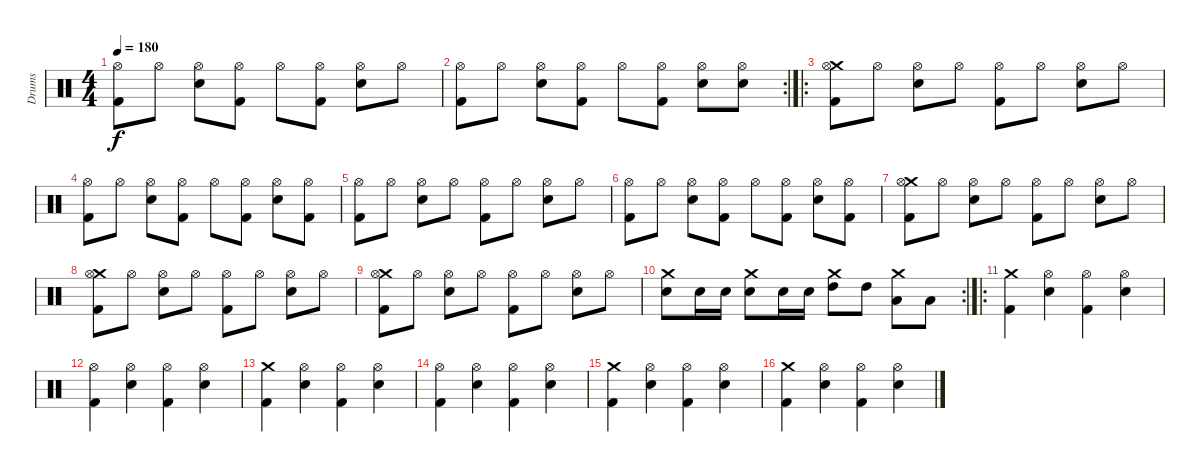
\track ("Drums" "Drums") {instrument percussion}
\staff {score}
\articulation defaults
\ts (4 4)
\tempo 180
\clef neutral
\ks c
("Hi-Hat (open)" "Kick (hit) 2").8{dy f} "Hi-Hat (open)".8 ("Hi-Hat (open)" "Snare (hit) 2").8 ("Hi-Hat (open)" "Kick (hit) 2").8 "Hi-Hat (open)".8 ("Hi-Hat (open)" "Kick (hit) 2").8 ("Hi-Hat (open)" "Snare (hit) 2").8 "Hi-Hat (open)".8 |
\rc 2
("Hi-Hat (open)" "Kick (hit) 2").8 "Hi-Hat (open)".8 ("Hi-Hat (open)" "Snare (hit) 2").8 ("Hi-Hat (open)" "Kick (hit) 2").8 "Hi-Hat (open)".8 ("Hi-Hat (open)" "Kick (hit) 2").8 ("Hi-Hat (open)" "Snare (hit) 2").8 ("Hi-Hat (open)" "Snare (hit) 2").8 |
\ro
("Crash medium (hit)" "Hi-Hat (open)" "Kick (hit) 2").8 "Hi-Hat (open)".8 ("Hi-Hat (open)" "Snare (hit) 2").8 "Hi-Hat (open)".8 ("Hi-Hat (open)" "Kick (hit) 2").8 "Hi-Hat (open)".8 ("Hi-Hat (open)" "Snare (hit) 2").8 "Hi-Hat (open)".8 |
("Hi-Hat (open)" "Kick (hit) 2").8 "Hi-Hat (open)".8 ("Hi-Hat (open)" "Snare (hit) 2").8 ("Hi-Hat (open)" "Kick (hit) 2").8 "Hi-Hat (open)".8 ("Hi-Hat (open)" "Kick (hit) 2").8 ("Hi-Hat (open)" "Snare (hit) 2").8 ("Hi-Hat (open)" "Kick (hit) 2").8 |
("Hi-Hat (open)" "Kick (hit) 2").8 "Hi-Hat (open)".8 ("Hi-Hat (open)" "Snare (hit) 2").8 "Hi-Hat (open)".8 ("Hi-Hat (open)" "Kick (hit) 2").8 "Hi-Hat (open)".8 ("Hi-Hat (open)" "Snare (hit) 2").8 "Hi-Hat (open)".8 |
("Hi-Hat (open)" "Kick (hit) 2").8 "Hi-Hat (open)".8 ("Hi-Hat (open)" "Snare (hit) 2").8 ("Hi-Hat (open)" "Kick (hit) 2").8 "Hi-Hat (open)".8 ("Hi-Hat (open)" "Kick (hit) 2").8 ("Hi-Hat (open)" "Snare (hit) 2").8 ("Hi-Hat (open)" "Kick (hit) 2").8 |
("Crash medium (hit)" "Hi-Hat (open)" "Kick (hit) 2").8 "Hi-Hat (open)".8 ("Hi-Hat (open)" "Snare (hit) 2").8 "Hi-Hat (open)".8 ("Hi-Hat (open)" "Kick (hit) 2").8 "Hi-Hat (open)".8 ("Hi-Hat (open)" "Snare (hit) 2").8 "Hi-Hat (open)".8 |
("Crash medium (hit)" "Hi-Hat (open)" "Kick (hit) 2").8 "Hi-Hat (open)".8 ("Hi-Hat (open)" "Snare (hit) 2").8 "Hi-Hat (open)".8 ("Hi-Hat (open)" "Kick (hit) 2").8 "Hi-Hat (open)".8 ("Hi-Hat (open)" "Snare (hit) 2").8 "Hi-Hat (open)".8 |
("Crash medium (hit)" "Hi-Hat (open)" "Kick (hit) 2").8 "Hi-Hat (open)".8 ("Hi-Hat (open)" "Snare (hit) 2").8 "Hi-Hat (open)".8 ("Hi-Hat (open)" "Kick (hit) 2").8 "Hi-Hat (open)".8 ("Hi-Hat (open)" "Snare (hit) 2").8 "Hi-Hat (open)".8 |
\rc 2
("Crash medium (hit)" "Snare (hit) 2").8 "Snare (hit) 2".16 "Snare (hit) 2".16 ("Crash medium (hit)" "Snare (hit) 2").8 "Snare (hit) 2".16 "Snare (hit) 2".16 ("Crash medium (hit)" "High Tom (hit)").8 "High Tom (hit)".8 ("Crash medium (hit)" "Low Tom (hit)").8 "Low Tom (hit)".8 |
\ro
("Crash medium (hit)" "Kick (hit) 2").4 ("Hi-Hat (open)" "Snare (hit) 2").4 ("Hi-Hat (open)" "Kick (hit) 2").4 ("Hi-Hat (open)" "Snare (hit) 2").4 |
("Hi-Hat (open)" "Kick (hit) 2").4 ("Hi-Hat (open)" "Snare (hit) 2").4 ("Hi-Hat (open)" "Kick (hit) 2").4 ("Hi-Hat (open)" "Snare (hit) 2").4 |
("Crash medium (hit)" "Kick (hit) 2").4 ("Hi-Hat (open)" "Snare (hit) 2").4 ("Hi-Hat (open)" "Kick (hit) 2").4 ("Hi-Hat (open)" "Snare (hit) 2").4 |
("Hi-Hat (open)" "Kick (hit) 2").4 ("Hi-Hat (open)" "Snare (hit) 2").4 ("Hi-Hat (open)" "Kick (hit) 2").4 ("Hi-Hat (open)" "Snare (hit) 2").4 |
("Crash medium (hit)" "Kick (hit) 2").4 ("Hi-Hat (open)" "Snare (hit) 2").4 ("Hi-Hat (open)" "Kick (hit) 2").4 ("Hi-Hat (open)" "Snare (hit) 2").4 |
("Crash medium (hit)" "Kick (hit) 2").4 ("Hi-Hat (open)" "Snare (hit) 2").4 ("Hi-Hat (open)" "Kick (hit) 2").4 ("Hi-Hat (open)" "Snare (hit) 2").4
